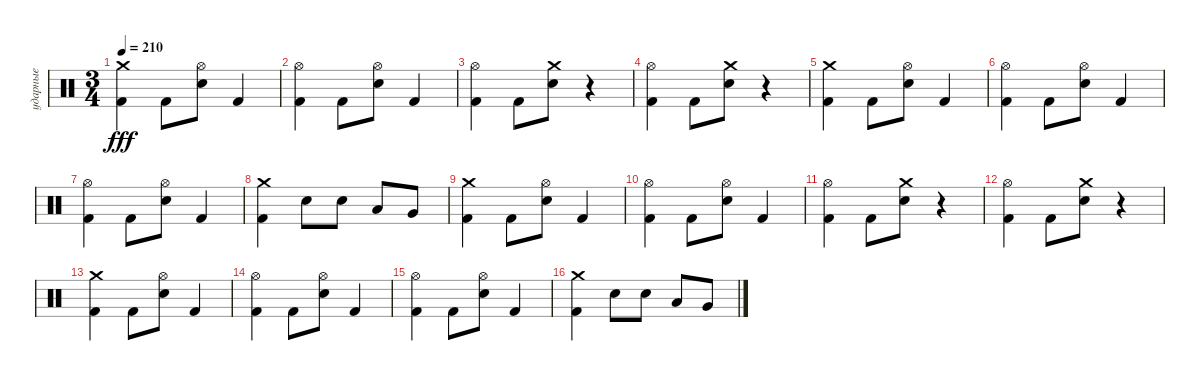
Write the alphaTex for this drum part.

\track ("ударные" "ударные") {instrument percussion}
\staff {score}
\articulation defaults
\ts (3 4)
\tempo 210
\clef neutral
\ks c
("Crash medium (hit)" "Kick (hit) 2").4{dy fff} "Kick (hit) 2".8 ("Hi-Hat (open)" "Snare (hit) 2").8 "Kick (hit) 2".4 |
("Hi-Hat (open)" "Kick (hit) 2").4 "Kick (hit) 2".8 ("Hi-Hat (open)" "Snare (hit) 2").8 "Kick (hit) 2".4 |
("Hi-Hat (open)" "Kick (hit) 2").4 "Kick (hit) 2".8 ("Crash medium (hit)" "Snare (hit) 2").8 r.4 |
("Hi-Hat (open)" "Kick (hit) 2").4 "Kick (hit) 2".8 ("Crash medium (hit)" "Snare (hit) 2").8 r.4 |
("Crash medium (hit)" "Kick (hit) 2").4 "Kick (hit) 2".8 ("Hi-Hat (open)" "Snare (hit) 2").8 "Kick (hit) 2".4 |
("Hi-Hat (open)" "Kick (hit) 2").4 "Kick (hit) 2".8 ("Hi-Hat (open)" "Snare (hit) 2").8 "Kick (hit) 2".4 |
("Hi-Hat (open)" "Kick (hit) 2").4 "Kick (hit) 2".8 ("Hi-Hat (open)" "Snare (hit) 2").8 "Kick (hit) 2".4 |
("Crash medium (hit)" "Kick (hit) 2").4 "Snare (hit) 2".8 "Snare (hit) 2".8 "Low Tom (hit)".8 "Very Low Tom (hit)".8 |
("Crash medium (hit)" "Kick (hit) 2").4 "Kick (hit) 2".8 ("Hi-Hat (open)" "Snare (hit) 2").8 "Kick (hit) 2".4 |
("Hi-Hat (open)" "Kick (hit) 2").4 "Kick (hit) 2".8 ("Hi-Hat (open)" "Snare (hit) 2").8 "Kick (hit) 2".4 |
("Hi-Hat (open)" "Kick (hit) 2").4 "Kick (hit) 2".8 ("Crash medium (hit)" "Snare (hit) 2").8 r.4 |
("Hi-Hat (open)" "Kick (hit) 2").4 "Kick (hit) 2".8 ("Crash medium (hit)" "Snare (hit) 2").8 r.4 |
("Crash medium (hit)" "Kick (hit) 2").4 "Kick (hit) 2".8 ("Hi-Hat (open)" "Snare (hit) 2").8 "Kick (hit) 2".4 |
("Hi-Hat (open)" "Kick (hit) 2").4 "Kick (hit) 2".8 ("Hi-Hat (open)" "Snare (hit) 2").8 "Kick (hit) 2".4 |
("Hi-Hat (open)" "Kick (hit) 2").4 "Kick (hit) 2".8 ("Hi-Hat (open)" "Snare (hit) 2").8 "Kick (hit) 2".4 |
("Crash medium (hit)" "Kick (hit) 2").4 "Snare (hit) 2".8 "Snare (hit) 2".8 "Low Tom (hit)".8 "Very Low Tom (hit)".8
